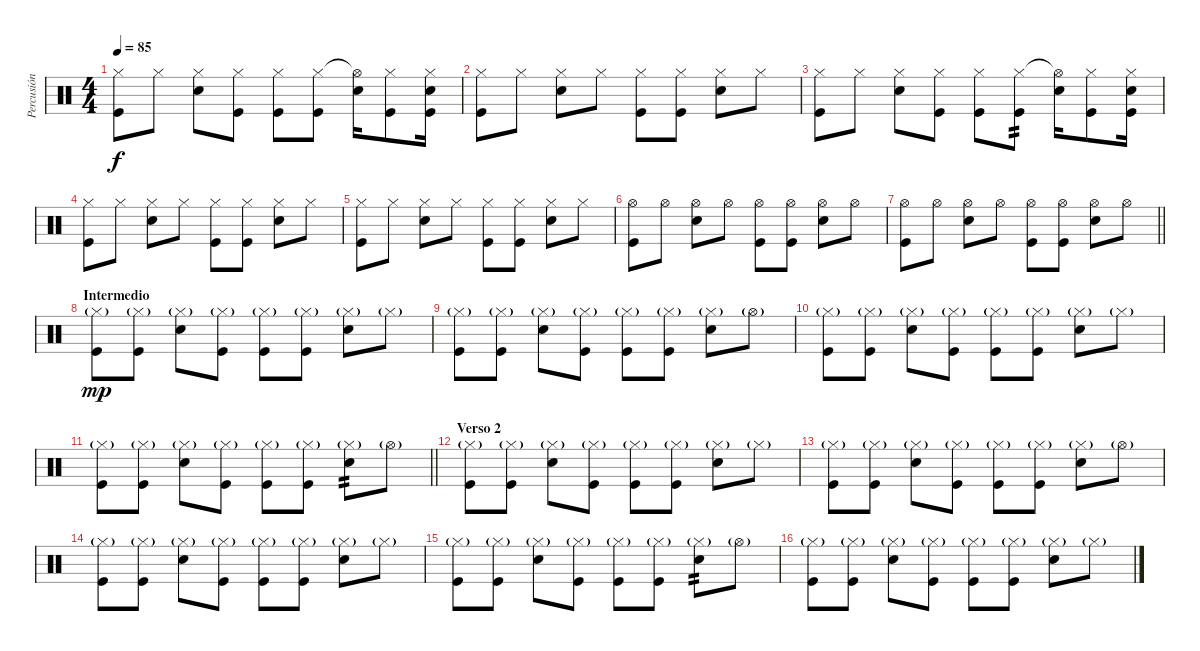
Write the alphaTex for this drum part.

\track ("Percusión" "Percusión") {instrument percussion}
\staff {score}
\articulation defaults
\ts (4 4)
\tempo 85
\clef neutral
\ks c
("Hi-Hat (closed)" "Kick (hit)").8{dy f} "Hi-Hat (closed)".8 ("Hi-Hat (closed)" "Electric Snare (hit)").8 ("Hi-Hat (closed)" "Kick (hit)").8 ("Hi-Hat (closed)" "Kick (hit)").8 ("Hi-Hat (closed)" "Kick (hit)").8 ("Hi-Hat (open)"{t} "Electric Snare (hit)").16 ("Hi-Hat (closed)" "Kick (hit)").8 ("Hi-Hat (closed)" "Electric Snare (hit)" "Kick (hit)").16 |
("Hi-Hat (closed)" "Kick (hit)").8 "Hi-Hat (closed)".8 ("Hi-Hat (closed)" "Electric Snare (hit)").8 "Hi-Hat (closed)".8 ("Hi-Hat (closed)" "Kick (hit)").8 ("Hi-Hat (closed)" "Kick (hit)").8 ("Hi-Hat (closed)" "Electric Snare (hit)").8 "Hi-Hat (closed)".8 |
("Hi-Hat (closed)" "Kick (hit)").8 "Hi-Hat (closed)".8 ("Hi-Hat (closed)" "Electric Snare (hit)").8 ("Hi-Hat (closed)" "Kick (hit)").8 ("Hi-Hat (closed)" "Kick (hit)").8 ("Hi-Hat (closed)" "Kick (hit)").8{tp 2} ("Hi-Hat (open)"{t} "Electric Snare (hit)").16 ("Hi-Hat (closed)" "Kick (hit)").8 ("Hi-Hat (closed)" "Electric Snare (hit)" "Kick (hit)").16 |
("Hi-Hat (closed)" "Kick (hit)").8 "Hi-Hat (closed)".8 ("Hi-Hat (closed)" "Electric Snare (hit)").8 "Hi-Hat (closed)".8 ("Hi-Hat (closed)" "Kick (hit)").8 ("Hi-Hat (closed)" "Kick (hit)").8 ("Hi-Hat (closed)" "Electric Snare (hit)").8 "Hi-Hat (closed)".8 |
("Hi-Hat (closed)" "Kick (hit)").8 "Hi-Hat (closed)".8 ("Hi-Hat (closed)" "Electric Snare (hit)").8 "Hi-Hat (closed)".8 ("Hi-Hat (closed)" "Kick (hit)").8 ("Hi-Hat (closed)" "Kick (hit)").8 ("Hi-Hat (closed)" "Electric Snare (hit)").8 "Hi-Hat (closed)".8 |
("Hi-Hat (open)" "Kick (hit)").8 "Hi-Hat (open)".8 ("Hi-Hat (open)" "Electric Snare (hit)").8 "Hi-Hat (open)".8 ("Hi-Hat (open)" "Kick (hit)").8 ("Hi-Hat (open)" "Kick (hit)").8 ("Hi-Hat (open)" "Electric Snare (hit)").8 "Hi-Hat (open)".8 |
\barLineRight lightlight
("Hi-Hat (open)" "Kick (hit)").8 "Hi-Hat (open)".8 ("Hi-Hat (open)" "Electric Snare (hit)").8 "Hi-Hat (open)".8 ("Hi-Hat (open)" "Kick (hit)").8 ("Hi-Hat (open)" "Kick (hit)").8 ("Hi-Hat (open)" "Electric Snare (hit)").8 "Hi-Hat (open)".8 |
\section ("" "Intermedio")
("Hi-Hat (closed)"{g} "Kick (hit)").8{dy mp} ("Hi-Hat (closed)"{g} "Kick (hit)").8 ("Hi-Hat (closed)"{g} "Electric Snare (hit)").8 ("Hi-Hat (closed)"{g} "Kick (hit)").8 ("Hi-Hat (closed)"{g} "Kick (hit)").8 ("Hi-Hat (closed)"{g} "Kick (hit)").8 ("Hi-Hat (closed)"{g} "Electric Snare (hit)").8 "Hi-Hat (closed)"{g}.8 |
("Hi-Hat (closed)"{g} "Kick (hit)").8 ("Hi-Hat (closed)"{g} "Kick (hit)").8 ("Hi-Hat (closed)"{g} "Electric Snare (hit)").8 ("Hi-Hat (closed)"{g} "Kick (hit)").8 ("Hi-Hat (closed)"{g} "Kick (hit)").8 ("Hi-Hat (closed)"{g} "Kick (hit)").8 ("Hi-Hat (closed)"{g} "Electric Snare (hit)").8 "Hi-Hat (open)"{g}.8 |
("Hi-Hat (closed)"{g} "Kick (hit)").8 ("Hi-Hat (closed)"{g} "Kick (hit)").8 ("Hi-Hat (closed)"{g} "Electric Snare (hit)").8 ("Hi-Hat (closed)"{g} "Kick (hit)").8 ("Hi-Hat (closed)"{g} "Kick (hit)").8 ("Hi-Hat (closed)"{g} "Kick (hit)").8 ("Hi-Hat (closed)"{g} "Electric Snare (hit)").8 "Hi-Hat (closed)"{g}.8 |
\barLineRight lightlight
("Hi-Hat (closed)"{g} "Kick (hit)").8 ("Hi-Hat (closed)"{g} "Kick (hit)").8 ("Hi-Hat (closed)"{g} "Electric Snare (hit)").8 ("Hi-Hat (closed)"{g} "Kick (hit)").8 ("Hi-Hat (closed)"{g} "Kick (hit)").8 ("Hi-Hat (closed)"{g} "Kick (hit)").8 ("Hi-Hat (closed)"{g} "Electric Snare (hit)").8{tp 2} "Hi-Hat (open)"{g}.8 |
\section ("" "Verso 2")
("Hi-Hat (closed)"{g} "Kick (hit)").8 ("Hi-Hat (closed)"{g} "Kick (hit)").8 ("Hi-Hat (closed)"{g} "Electric Snare (hit)").8 ("Hi-Hat (closed)"{g} "Kick (hit)").8 ("Hi-Hat (closed)"{g} "Kick (hit)").8 ("Hi-Hat (closed)"{g} "Kick (hit)").8 ("Hi-Hat (closed)"{g} "Electric Snare (hit)").8 "Hi-Hat (closed)"{g}.8 |
("Hi-Hat (closed)"{g} "Kick (hit)").8 ("Hi-Hat (closed)"{g} "Kick (hit)").8 ("Hi-Hat (closed)"{g} "Electric Snare (hit)").8 ("Hi-Hat (closed)"{g} "Kick (hit)").8 ("Hi-Hat (closed)"{g} "Kick (hit)").8 ("Hi-Hat (closed)"{g} "Kick (hit)").8 ("Hi-Hat (closed)"{g} "Electric Snare (hit)").8 "Hi-Hat (open)"{g}.8 |
("Hi-Hat (closed)"{g} "Kick (hit)").8 ("Hi-Hat (closed)"{g} "Kick (hit)").8 ("Hi-Hat (closed)"{g} "Electric Snare (hit)").8 ("Hi-Hat (closed)"{g} "Kick (hit)").8 ("Hi-Hat (closed)"{g} "Kick (hit)").8 ("Hi-Hat (closed)"{g} "Kick (hit)").8 ("Hi-Hat (closed)"{g} "Electric Snare (hit)").8 "Hi-Hat (closed)"{g}.8 |
("Hi-Hat (closed)"{g} "Kick (hit)").8 ("Hi-Hat (closed)"{g} "Kick (hit)").8 ("Hi-Hat (closed)"{g} "Electric Snare (hit)").8 ("Hi-Hat (closed)"{g} "Kick (hit)").8 ("Hi-Hat (closed)"{g} "Kick (hit)").8 ("Hi-Hat (closed)"{g} "Kick (hit)").8 ("Hi-Hat (closed)"{g} "Electric Snare (hit)").8{tp 2} "Hi-Hat (open)"{g}.8 |
("Hi-Hat (closed)"{g} "Kick (hit)").8 ("Hi-Hat (closed)"{g} "Kick (hit)").8 ("Hi-Hat (closed)"{g} "Electric Snare (hit)").8 ("Hi-Hat (closed)"{g} "Kick (hit)").8 ("Hi-Hat (closed)"{g} "Kick (hit)").8 ("Hi-Hat (closed)"{g} "Kick (hit)").8 ("Hi-Hat (closed)"{g} "Electric Snare (hit)").8 "Hi-Hat (closed)"{g}.8
